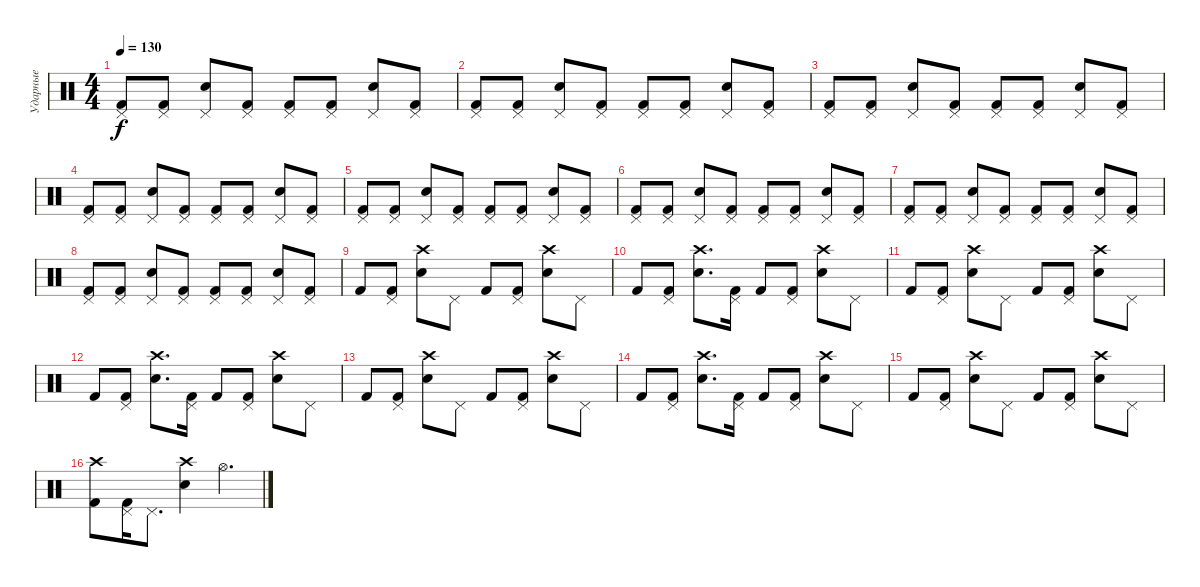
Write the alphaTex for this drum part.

\track ("Ударные" "Ударные") {instrument percussion}
\staff {score}
\articulation defaults
\ts (4 4)
\tempo 130
\clef neutral
\ks c
("Pedal Hi-Hat (hit)" "Kick (hit) 2").8{dy f} ("Pedal Hi-Hat (hit)" "Kick (hit) 2").8 ("Pedal Hi-Hat (hit)" "Snare (hit) 2").8 ("Pedal Hi-Hat (hit)" "Kick (hit) 2").8 ("Pedal Hi-Hat (hit)" "Kick (hit) 2").8 ("Pedal Hi-Hat (hit)" "Kick (hit) 2").8 ("Pedal Hi-Hat (hit)" "Snare (hit) 2").8 ("Pedal Hi-Hat (hit)" "Kick (hit) 2").8 |
("Pedal Hi-Hat (hit)" "Kick (hit) 2").8 ("Pedal Hi-Hat (hit)" "Kick (hit) 2").8 ("Pedal Hi-Hat (hit)" "Snare (hit) 2").8 ("Pedal Hi-Hat (hit)" "Kick (hit) 2").8 ("Pedal Hi-Hat (hit)" "Kick (hit) 2").8 ("Pedal Hi-Hat (hit)" "Kick (hit) 2").8 ("Pedal Hi-Hat (hit)" "Snare (hit) 2").8 ("Pedal Hi-Hat (hit)" "Kick (hit) 2").8 |
("Pedal Hi-Hat (hit)" "Kick (hit) 2").8 ("Pedal Hi-Hat (hit)" "Kick (hit) 2").8 ("Pedal Hi-Hat (hit)" "Snare (hit) 2").8 ("Pedal Hi-Hat (hit)" "Kick (hit) 2").8 ("Pedal Hi-Hat (hit)" "Kick (hit) 2").8 ("Pedal Hi-Hat (hit)" "Kick (hit) 2").8 ("Pedal Hi-Hat (hit)" "Snare (hit) 2").8 ("Pedal Hi-Hat (hit)" "Kick (hit) 2").8 |
("Pedal Hi-Hat (hit)" "Kick (hit) 2").8 ("Pedal Hi-Hat (hit)" "Kick (hit) 2").8 ("Pedal Hi-Hat (hit)" "Snare (hit) 2").8 ("Pedal Hi-Hat (hit)" "Kick (hit) 2").8 ("Pedal Hi-Hat (hit)" "Kick (hit) 2").8 ("Pedal Hi-Hat (hit)" "Kick (hit) 2").8 ("Pedal Hi-Hat (hit)" "Snare (hit) 2").8 ("Pedal Hi-Hat (hit)" "Kick (hit) 2").8 |
("Pedal Hi-Hat (hit)" "Kick (hit) 2").8 ("Pedal Hi-Hat (hit)" "Kick (hit) 2").8 ("Pedal Hi-Hat (hit)" "Snare (hit) 2").8 ("Pedal Hi-Hat (hit)" "Kick (hit) 2").8 ("Pedal Hi-Hat (hit)" "Kick (hit) 2").8 ("Pedal Hi-Hat (hit)" "Kick (hit) 2").8 ("Pedal Hi-Hat (hit)" "Snare (hit) 2").8 ("Pedal Hi-Hat (hit)" "Kick (hit) 2").8 |
("Pedal Hi-Hat (hit)" "Kick (hit) 2").8 ("Pedal Hi-Hat (hit)" "Kick (hit) 2").8 ("Pedal Hi-Hat (hit)" "Snare (hit) 2").8 ("Pedal Hi-Hat (hit)" "Kick (hit) 2").8 ("Pedal Hi-Hat (hit)" "Kick (hit) 2").8 ("Pedal Hi-Hat (hit)" "Kick (hit) 2").8 ("Pedal Hi-Hat (hit)" "Snare (hit) 2").8 ("Pedal Hi-Hat (hit)" "Kick (hit) 2").8 |
("Pedal Hi-Hat (hit)" "Kick (hit) 2").8 ("Pedal Hi-Hat (hit)" "Kick (hit) 2").8 ("Pedal Hi-Hat (hit)" "Snare (hit) 2").8 ("Pedal Hi-Hat (hit)" "Kick (hit) 2").8 ("Pedal Hi-Hat (hit)" "Kick (hit) 2").8 ("Pedal Hi-Hat (hit)" "Kick (hit) 2").8 ("Pedal Hi-Hat (hit)" "Snare (hit) 2").8 ("Pedal Hi-Hat (hit)" "Kick (hit) 2").8 |
("Pedal Hi-Hat (hit)" "Kick (hit) 2").8 ("Pedal Hi-Hat (hit)" "Kick (hit) 2").8 ("Pedal Hi-Hat (hit)" "Snare (hit) 2").8 ("Pedal Hi-Hat (hit)" "Kick (hit) 2").8 ("Pedal Hi-Hat (hit)" "Kick (hit) 2").8 ("Pedal Hi-Hat (hit)" "Kick (hit) 2").8 ("Pedal Hi-Hat (hit)" "Snare (hit) 2").8 ("Pedal Hi-Hat (hit)" "Kick (hit) 2").8 |
"Kick (hit) 2".8 ("Pedal Hi-Hat (hit)" "Kick (hit) 2").8 ("Crash high (hit)" "Snare (hit) 2").8 "Pedal Hi-Hat (hit)".8 "Kick (hit) 2".8 ("Pedal Hi-Hat (hit)" "Kick (hit) 2").8 ("Crash high (hit)" "Snare (hit) 2").8 "Pedal Hi-Hat (hit)".8 |
"Kick (hit) 2".8 ("Pedal Hi-Hat (hit)" "Kick (hit) 2").8 ("Crash high (hit)" "Snare (hit) 2").8{d} ("Pedal Hi-Hat (hit)" "Kick (hit) 2").16 "Kick (hit) 2".8 ("Pedal Hi-Hat (hit)" "Kick (hit) 2").8 ("Crash high (hit)" "Snare (hit) 2").8 "Pedal Hi-Hat (hit)".8 |
"Kick (hit) 2".8 ("Pedal Hi-Hat (hit)" "Kick (hit) 2").8 ("Crash high (hit)" "Snare (hit) 2").8 "Pedal Hi-Hat (hit)".8 "Kick (hit) 2".8 ("Pedal Hi-Hat (hit)" "Kick (hit) 2").8 ("Crash high (hit)" "Snare (hit) 2").8 "Pedal Hi-Hat (hit)".8 |
"Kick (hit) 2".8 ("Pedal Hi-Hat (hit)" "Kick (hit) 2").8 ("Crash high (hit)" "Snare (hit) 2").8{d} ("Pedal Hi-Hat (hit)" "Kick (hit) 2").16 "Kick (hit) 2".8 ("Pedal Hi-Hat (hit)" "Kick (hit) 2").8 ("Crash high (hit)" "Snare (hit) 2").8 "Pedal Hi-Hat (hit)".8 |
"Kick (hit) 2".8 ("Pedal Hi-Hat (hit)" "Kick (hit) 2").8 ("Crash high (hit)" "Snare (hit) 2").8 "Pedal Hi-Hat (hit)".8 "Kick (hit) 2".8 ("Pedal Hi-Hat (hit)" "Kick (hit) 2").8 ("Crash high (hit)" "Snare (hit) 2").8 "Pedal Hi-Hat (hit)".8 |
"Kick (hit) 2".8 ("Pedal Hi-Hat (hit)" "Kick (hit) 2").8 ("Crash high (hit)" "Snare (hit) 2").8{d} ("Pedal Hi-Hat (hit)" "Kick (hit) 2").16 "Kick (hit) 2".8 ("Pedal Hi-Hat (hit)" "Kick (hit) 2").8 ("Crash high (hit)" "Snare (hit) 2").8 "Pedal Hi-Hat (hit)".8 |
"Kick (hit) 2".8 ("Pedal Hi-Hat (hit)" "Kick (hit) 2").8 ("Crash high (hit)" "Snare (hit) 2").8 "Pedal Hi-Hat (hit)".8 "Kick (hit) 2".8 ("Pedal Hi-Hat (hit)" "Kick (hit) 2").8 ("Crash high (hit)" "Snare (hit) 2").8 "Pedal Hi-Hat (hit)".8 |
("Crash high (hit)" "Kick (hit) 2").8 ("Pedal Hi-Hat (hit)" "Kick (hit) 2").16 "Pedal Hi-Hat (hit)".8{d} ("Crash high (hit)" "Snare (hit) 2").4 "Hi-Hat (open)".4{d}
